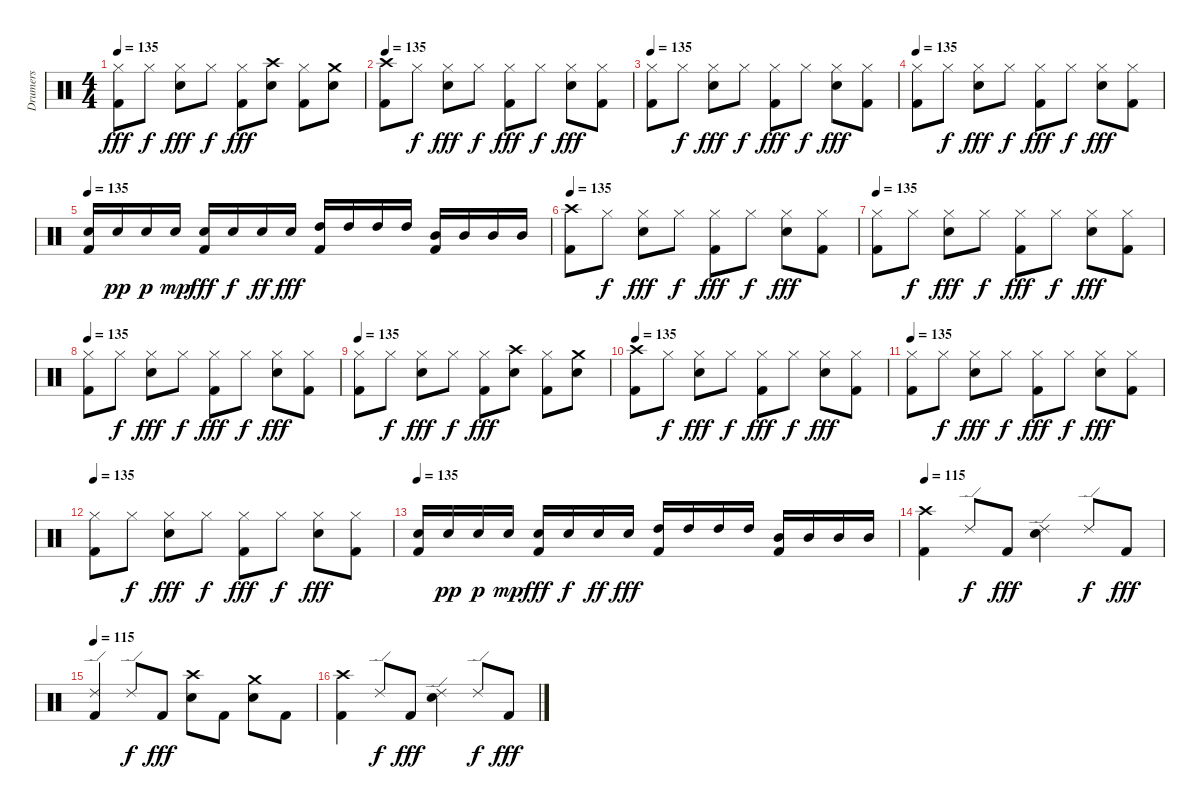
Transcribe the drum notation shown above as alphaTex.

\track ("Drumers" "Drumers") {instrument percussion}
\staff {score}
\articulation defaults
\ts (4 4)
\tempo 135
\clef neutral
\ks c
("Hi-Hat (closed)" "Kick (hit) 2").8{dy fff} "Hi-Hat (closed)".8{dy f} ("Hi-Hat (closed)" "Electric Snare (hit)").8{dy fff} "Hi-Hat (closed)".8{dy f} ("Hi-Hat (closed)" "Kick (hit) 2").8{dy fff} ("Crash high (hit)" "Electric Snare (hit)").8 ("Hi-Hat (closed)" "Kick (hit) 2").8 ("Crash medium (hit)" "Electric Snare (hit)").8 |
\tempo 135
("Crash high (hit)" "Kick (hit) 2").8 "Hi-Hat (closed)".8{dy f} ("Hi-Hat (closed)" "Electric Snare (hit)").8{dy fff} "Hi-Hat (closed)".8{dy f} ("Hi-Hat (closed)" "Kick (hit) 2").8{dy fff} "Hi-Hat (closed)".8{dy f} ("Hi-Hat (closed)" "Electric Snare (hit)").8{dy fff} ("Hi-Hat (closed)" "Kick (hit) 2").8 |
\tempo 135
("Hi-Hat (closed)" "Kick (hit) 2").8 "Hi-Hat (closed)".8{dy f} ("Hi-Hat (closed)" "Electric Snare (hit)").8{dy fff} "Hi-Hat (closed)".8{dy f} ("Hi-Hat (closed)" "Kick (hit) 2").8{dy fff} "Hi-Hat (closed)".8{dy f} ("Hi-Hat (closed)" "Electric Snare (hit)").8{dy fff} ("Hi-Hat (closed)" "Kick (hit) 2").8 |
\tempo 135
("Hi-Hat (closed)" "Kick (hit) 2").8 "Hi-Hat (closed)".8{dy f} ("Hi-Hat (closed)" "Electric Snare (hit)").8{dy fff} "Hi-Hat (closed)".8{dy f} ("Hi-Hat (closed)" "Kick (hit) 2").8{dy fff} "Hi-Hat (closed)".8{dy f} ("Hi-Hat (closed)" "Electric Snare (hit)").8{dy fff} ("Hi-Hat (closed)" "Kick (hit) 2").8 |
\tempo 135
("Electric Snare (hit)" "Kick (hit) 2").16 "Electric Snare (hit)".16{dy pp} "Electric Snare (hit)".16{dy p} "Electric Snare (hit)".16{dy mp} ("Electric Snare (hit)" "Kick (hit) 2").16{dy fff} "Electric Snare (hit)".16{dy f} "Electric Snare (hit)".16{dy ff} "Electric Snare (hit)".16{dy fff} ("High Tom (hit)" "Kick (hit) 2").16 "High Tom (hit)".16 "High Tom (hit)".16 "High Tom (hit)".16 ("Mid Tom (hit)" "Kick (hit) 2").16 "Mid Tom (hit)".16 "Mid Tom (hit)".16 "Mid Tom (hit)".16 |
\tempo 135
("Crash high (hit)" "Kick (hit) 2").8 "Hi-Hat (closed)".8{dy f} ("Hi-Hat (closed)" "Electric Snare (hit)").8{dy fff} "Hi-Hat (closed)".8{dy f} ("Hi-Hat (closed)" "Kick (hit) 2").8{dy fff} "Hi-Hat (closed)".8{dy f} ("Hi-Hat (closed)" "Electric Snare (hit)").8{dy fff} ("Hi-Hat (closed)" "Kick (hit) 2").8 |
\tempo 135
("Hi-Hat (closed)" "Kick (hit) 2").8 "Hi-Hat (closed)".8{dy f} ("Hi-Hat (closed)" "Electric Snare (hit)").8{dy fff} "Hi-Hat (closed)".8{dy f} ("Hi-Hat (closed)" "Kick (hit) 2").8{dy fff} "Hi-Hat (closed)".8{dy f} ("Hi-Hat (closed)" "Electric Snare (hit)").8{dy fff} ("Hi-Hat (closed)" "Kick (hit) 2").8 |
\tempo 135
("Hi-Hat (closed)" "Kick (hit) 2").8 "Hi-Hat (closed)".8{dy f} ("Hi-Hat (closed)" "Electric Snare (hit)").8{dy fff} "Hi-Hat (closed)".8{dy f} ("Hi-Hat (closed)" "Kick (hit) 2").8{dy fff} "Hi-Hat (closed)".8{dy f} ("Hi-Hat (closed)" "Electric Snare (hit)").8{dy fff} ("Hi-Hat (closed)" "Kick (hit) 2").8 |
\tempo 135
("Hi-Hat (closed)" "Kick (hit) 2").8 "Hi-Hat (closed)".8{dy f} ("Hi-Hat (closed)" "Electric Snare (hit)").8{dy fff} "Hi-Hat (closed)".8{dy f} ("Hi-Hat (closed)" "Kick (hit) 2").8{dy fff} ("Crash high (hit)" "Electric Snare (hit)").8 ("Hi-Hat (closed)" "Kick (hit) 2").8 ("Crash medium (hit)" "Electric Snare (hit)").8 |
\tempo 135
("Crash high (hit)" "Kick (hit) 2").8 "Hi-Hat (closed)".8{dy f} ("Hi-Hat (closed)" "Electric Snare (hit)").8{dy fff} "Hi-Hat (closed)".8{dy f} ("Hi-Hat (closed)" "Kick (hit) 2").8{dy fff} "Hi-Hat (closed)".8{dy f} ("Hi-Hat (closed)" "Electric Snare (hit)").8{dy fff} ("Hi-Hat (closed)" "Kick (hit) 2").8 |
\tempo 135
("Hi-Hat (closed)" "Kick (hit) 2").8 "Hi-Hat (closed)".8{dy f} ("Hi-Hat (closed)" "Electric Snare (hit)").8{dy fff} "Hi-Hat (closed)".8{dy f} ("Hi-Hat (closed)" "Kick (hit) 2").8{dy fff} "Hi-Hat (closed)".8{dy f} ("Hi-Hat (closed)" "Electric Snare (hit)").8{dy fff} ("Hi-Hat (closed)" "Kick (hit) 2").8 |
\tempo 135
("Hi-Hat (closed)" "Kick (hit) 2").8 "Hi-Hat (closed)".8{dy f} ("Hi-Hat (closed)" "Electric Snare (hit)").8{dy fff} "Hi-Hat (closed)".8{dy f} ("Hi-Hat (closed)" "Kick (hit) 2").8{dy fff} "Hi-Hat (closed)".8{dy f} ("Hi-Hat (closed)" "Electric Snare (hit)").8{dy fff} ("Hi-Hat (closed)" "Kick (hit) 2").8 |
\tempo 135
("Electric Snare (hit)" "Kick (hit) 2").16 "Electric Snare (hit)".16{dy pp} "Electric Snare (hit)".16{dy p} "Electric Snare (hit)".16{dy mp} ("Electric Snare (hit)" "Kick (hit) 2").16{dy fff} "Electric Snare (hit)".16{dy f} "Electric Snare (hit)".16{dy ff} "Electric Snare (hit)".16{dy fff} ("High Tom (hit)" "Kick (hit) 2").16 "High Tom (hit)".16 "High Tom (hit)".16 "High Tom (hit)".16 ("Mid Tom (hit)" "Kick (hit) 2").16 "Mid Tom (hit)".16 "Mid Tom (hit)".16 "Mid Tom (hit)".16 |
\tempo 115
("Crash high (hit)" "Kick (hit) 2").4 "Ride (edge) 2".8{dy f} "Kick (hit) 2".8{dy fff} ("Ride (edge) 2" "Electric Snare (hit)").4 "Ride (edge) 2".8{dy f} "Kick (hit) 2".8{dy fff} |
\section ("" "")
\tempo 115
("Ride (edge) 2" "Kick (hit) 2").4 "Ride (edge) 2".8{dy f} "Kick (hit) 2".8{dy fff} ("Crash high (hit)" "Electric Snare (hit)").8 "Kick (hit) 2".8 ("Crash medium (hit)" "Electric Snare (hit)").8 "Kick (hit) 2".8 |
("Crash high (hit)" "Kick (hit) 2").4 "Ride (edge) 2".8{dy f} "Kick (hit) 2".8{dy fff} ("Ride (edge) 2" "Electric Snare (hit)").4 "Ride (edge) 2".8{dy f} "Kick (hit) 2".8{dy fff}
